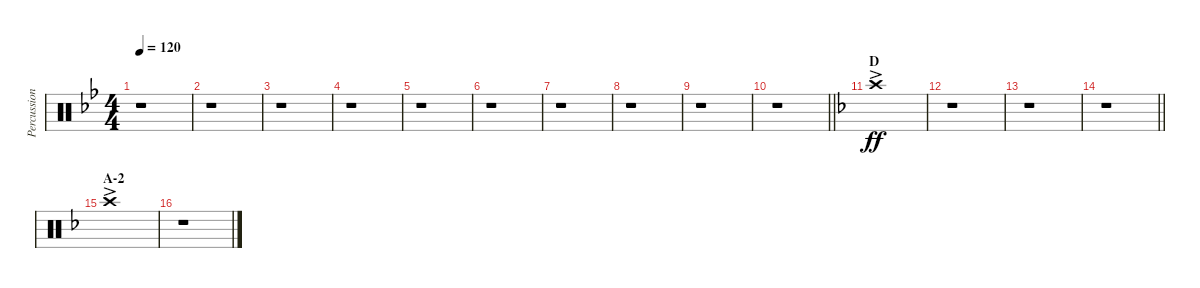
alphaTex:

\track ("Percussion" "Percussion") {instrument percussion}
\staff {score}
\articulation defaults
\ts (4 4)
\tempo 120
\clef neutral
\ks bb
r.1{dy ff} |
r.1 |
r.1 |
r.1 |
r.1 |
r.1 |
r.1 |
r.1 |
r.1 |
\barLineRight lightlight
r.1 |
\section ("" "D")
\ks f "Crash high (hit)"{ac}.1
|
r.1 |
r.1 |
\barLineRight lightlight
r.1 |
\section ("" "A-2")
"Crash high (hit)"{ac}.1 |
r.1
